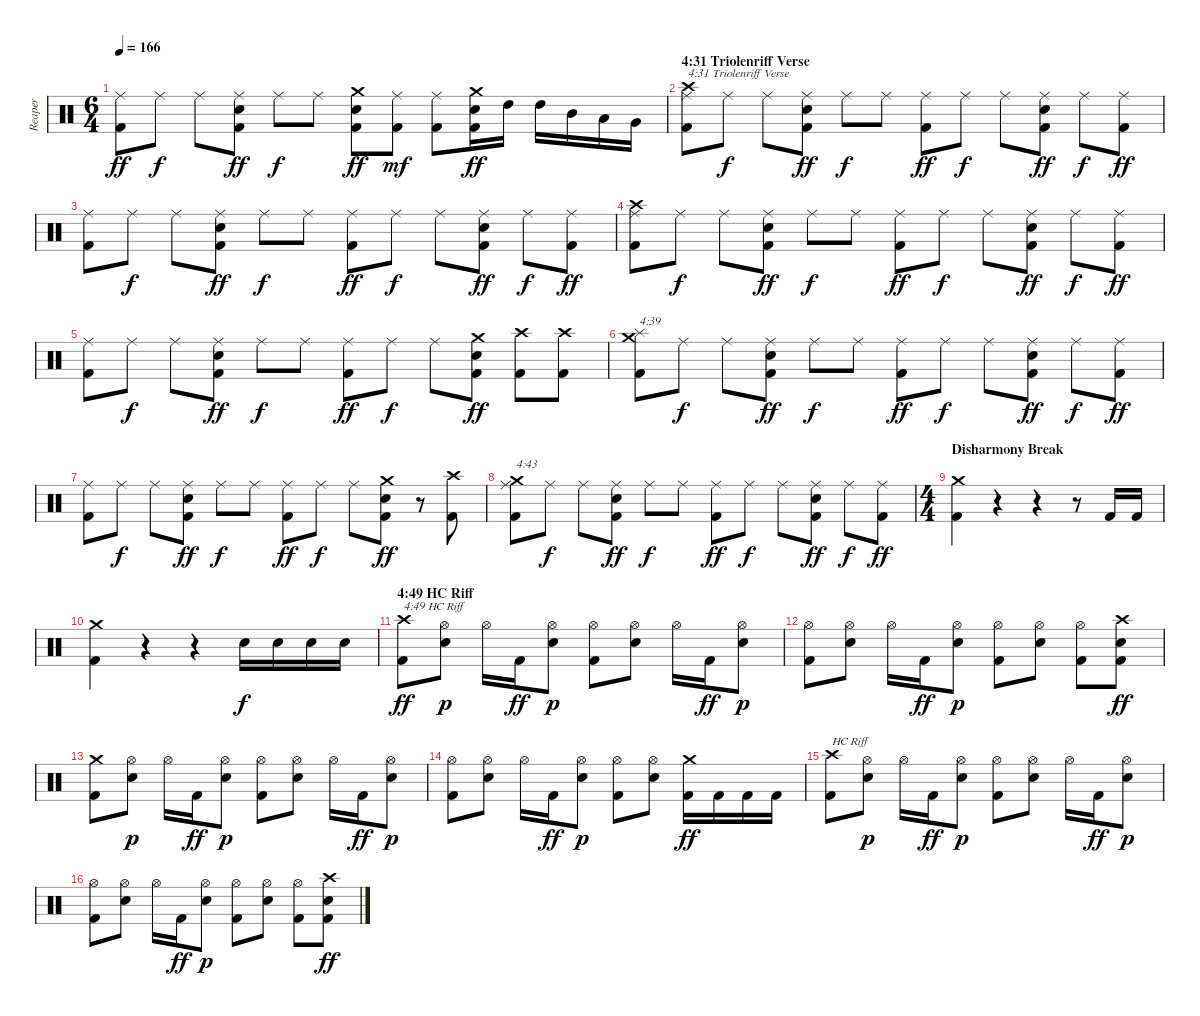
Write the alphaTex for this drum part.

\track ("Reaper" "Reaper") {instrument percussion}
\staff {score}
\articulation defaults
\ts (6 4)
\tempo 166
\clef neutral
\ks c
("Kick (hit) 2" "Ride (middle)").8{dy ff} "Ride (middle)".8{dy f} "Ride (middle)".8 ("Kick (hit) 2" "Electric Snare (hit)" "Ride (middle)").8{dy ff} "Ride (middle)".8{dy f} "Ride (middle)".8 ("Kick (hit) 2" "Electric Snare (hit)" "Crash medium (hit)").8{dy ff} ("Kick (hit) 2" "Ride (middle)").8{dy mf} ("Kick (hit) 2" "Ride (middle)").8 ("Kick (hit) 2" "Electric Snare (hit)" "Crash medium (hit)").16{dy ff} "High Tom (hit)".16 "High Tom (hit)".16 "Mid Tom (hit)".16 "Low Tom (hit)".16 "Very Low Tom (hit)".16 |
\section ("" "4:31 Triolenriff Verse")
("Kick (hit) 2" "Ride (middle)" "Crash high (hit)").8{txt "4:31 Triolenriff Verse"} "Ride (middle)".8{dy f} "Ride (middle)".8 ("Kick (hit) 2" "Electric Snare (hit)" "Ride (middle)").8{dy ff} "Ride (middle)".8{dy f} "Ride (middle)".8 ("Kick (hit) 2" "Ride (middle)").8{dy ff} "Ride (middle)".8{dy f} "Ride (middle)".8 ("Kick (hit) 2" "Electric Snare (hit)" "Ride (middle)").8{dy ff} "Ride (middle)".8{dy f} ("Kick (hit) 2" "Ride (middle)").8{dy ff} |
("Kick (hit) 2" "Ride (middle)").8 "Ride (middle)".8{dy f} "Ride (middle)".8 ("Kick (hit) 2" "Electric Snare (hit)" "Ride (middle)").8{dy ff} "Ride (middle)".8{dy f} "Ride (middle)".8 ("Kick (hit) 2" "Ride (middle)").8{dy ff} "Ride (middle)".8{dy f} "Ride (middle)".8 ("Kick (hit) 2" "Electric Snare (hit)" "Ride (middle)").8{dy ff} "Ride (middle)".8{dy f} ("Kick (hit) 2" "Ride (middle)").8{dy ff} |
("Kick (hit) 2" "Ride (middle)" "Crash high (hit)").8 "Ride (middle)".8{dy f} "Ride (middle)".8 ("Kick (hit) 2" "Electric Snare (hit)" "Ride (middle)").8{dy ff} "Ride (middle)".8{dy f} "Ride (middle)".8 ("Kick (hit) 2" "Ride (middle)").8{dy ff} "Ride (middle)".8{dy f} "Ride (middle)".8 ("Kick (hit) 2" "Electric Snare (hit)" "Ride (middle)").8{dy ff} "Ride (middle)".8{dy f} ("Kick (hit) 2" "Ride (middle)").8{dy ff} |
("Kick (hit) 2" "Ride (middle)").8 "Ride (middle)".8{dy f} "Ride (middle)".8 ("Kick (hit) 2" "Electric Snare (hit)" "Ride (middle)").8{dy ff} "Ride (middle)".8{dy f} "Ride (middle)".8 ("Kick (hit) 2" "Ride (middle)").8{dy ff} "Ride (middle)".8{dy f} "Ride (middle)".8 ("Kick (hit) 2" "Electric Snare (hit)" "Crash medium (hit)").8{dy ff} ("Kick (hit) 2" "Crash high (hit)").8 ("Kick (hit) 2" "Crash high (hit)").8 |
("Kick (hit) 2" "Splash (hit)" "Crash medium (hit)").8{txt "4:39"} "Ride (middle)".8{dy f} "Ride (middle)".8 ("Kick (hit) 2" "Electric Snare (hit)" "Ride (middle)").8{dy ff} "Ride (middle)".8{dy f} "Ride (middle)".8 ("Kick (hit) 2" "Ride (middle)").8{dy ff} "Ride (middle)".8{dy f} "Ride (middle)".8 ("Kick (hit) 2" "Electric Snare (hit)" "Ride (middle)").8{dy ff} "Ride (middle)".8{dy f} ("Kick (hit) 2" "Ride (middle)").8{dy ff} |
("Kick (hit) 2" "Ride (middle)").8 "Ride (middle)".8{dy f} "Ride (middle)".8 ("Kick (hit) 2" "Electric Snare (hit)" "Ride (middle)").8{dy ff} "Ride (middle)".8{dy f} "Ride (middle)".8 ("Kick (hit) 2" "Ride (middle)").8{dy ff} "Ride (middle)".8{dy f} "Ride (middle)".8 ("Kick (hit) 2" "Electric Snare (hit)" "Crash medium (hit)").8{dy ff} r.8 ("Kick (hit) 2" "Crash high (hit)").8 |
("Kick (hit) 2" "Ride (middle)" "Crash medium (hit)").8{txt "4:43"} "Ride (middle)".8{dy f} "Ride (middle)".8 ("Kick (hit) 2" "Electric Snare (hit)" "Ride (middle)").8{dy ff} "Ride (middle)".8{dy f} "Ride (middle)".8 ("Kick (hit) 2" "Ride (middle)").8{dy ff} "Ride (middle)".8{dy f} "Ride (middle)".8 ("Kick (hit) 2" "Electric Snare (hit)" "Ride (middle)").8{dy ff} "Ride (middle)".8{dy f} ("Kick (hit) 2" "Ride (middle)").8{dy ff} |
\ts (4 4)
\section ("" "Disharmony Break")
("Kick (hit) 2" "Crash medium (hit)").4 r.4 r.4 r.8 "Kick (hit) 2".16 "Kick (hit) 2".16 |
("Kick (hit) 2" "Crash medium (hit)").4 r.4 r.4 "Electric Snare (hit)".16{dy f} "Electric Snare (hit)".16 "Electric Snare (hit)".16 "Electric Snare (hit)".16 |
\section ("" "4:49 HC Riff")
("Kick (hit) 2" "Crash high (hit)").8{txt "4:49 HC Riff" dy ff} ("Electric Snare (hit)" "Hi-Hat (open)").8{dy p} "Hi-Hat (open)".16 "Kick (hit) 2".16{dy ff} ("Electric Snare (hit)" "Hi-Hat (open)").8{dy p} ("Kick (hit) 2" "Hi-Hat (open)").8 ("Electric Snare (hit)" "Hi-Hat (open)").8 "Hi-Hat (open)".16 "Kick (hit) 2".16{dy ff} ("Electric Snare (hit)" "Hi-Hat (open)").8{dy p} |
("Kick (hit) 2" "Hi-Hat (open)").8 ("Electric Snare (hit)" "Hi-Hat (open)").8 "Hi-Hat (open)".16 "Kick (hit) 2".16{dy ff} ("Electric Snare (hit)" "Hi-Hat (open)").8{dy p} ("Kick (hit) 2" "Hi-Hat (open)").8 ("Electric Snare (hit)" "Hi-Hat (open)").8 ("Kick (hit) 2" "Hi-Hat (open)").8 ("Kick (hit) 2" "Electric Snare (hit)" "Crash high (hit)").8{dy ff} |
("Kick (hit) 2" "Crash medium (hit)").8 ("Electric Snare (hit)" "Hi-Hat (open)").8{dy p} "Hi-Hat (open)".16 "Kick (hit) 2".16{dy ff} ("Electric Snare (hit)" "Hi-Hat (open)").8{dy p} ("Kick (hit) 2" "Hi-Hat (open)").8 ("Electric Snare (hit)" "Hi-Hat (open)").8 "Hi-Hat (open)".16 "Kick (hit) 2".16{dy ff} ("Electric Snare (hit)" "Hi-Hat (open)").8{dy p} |
("Kick (hit) 2" "Hi-Hat (open)").8 ("Electric Snare (hit)" "Hi-Hat (open)").8 "Hi-Hat (open)".16 "Kick (hit) 2".16{dy ff} ("Electric Snare (hit)" "Hi-Hat (open)").8{dy p} ("Kick (hit) 2" "Hi-Hat (open)").8 ("Electric Snare (hit)" "Hi-Hat (open)").8 ("Kick (hit) 2" "Crash medium (hit)").16{dy ff} "Kick (hit) 2".16 "Kick (hit) 2".16 "Kick (hit) 2".16 |
("Kick (hit) 2" "Crash high (hit)").8{txt "HC Riff"} ("Electric Snare (hit)" "Hi-Hat (open)").8{dy p} "Hi-Hat (open)".16 "Kick (hit) 2".16{dy ff} ("Electric Snare (hit)" "Hi-Hat (open)").8{dy p} ("Kick (hit) 2" "Hi-Hat (open)").8 ("Electric Snare (hit)" "Hi-Hat (open)").8 "Hi-Hat (open)".16 "Kick (hit) 2".16{dy ff} ("Electric Snare (hit)" "Hi-Hat (open)").8{dy p} |
("Kick (hit) 2" "Hi-Hat (open)").8 ("Electric Snare (hit)" "Hi-Hat (open)").8 "Hi-Hat (open)".16 "Kick (hit) 2".16{dy ff} ("Electric Snare (hit)" "Hi-Hat (open)").8{dy p} ("Kick (hit) 2" "Hi-Hat (open)").8 ("Electric Snare (hit)" "Hi-Hat (open)").8 ("Kick (hit) 2" "Hi-Hat (open)").8 ("Kick (hit) 2" "Electric Snare (hit)" "Crash high (hit)").8{dy ff}
